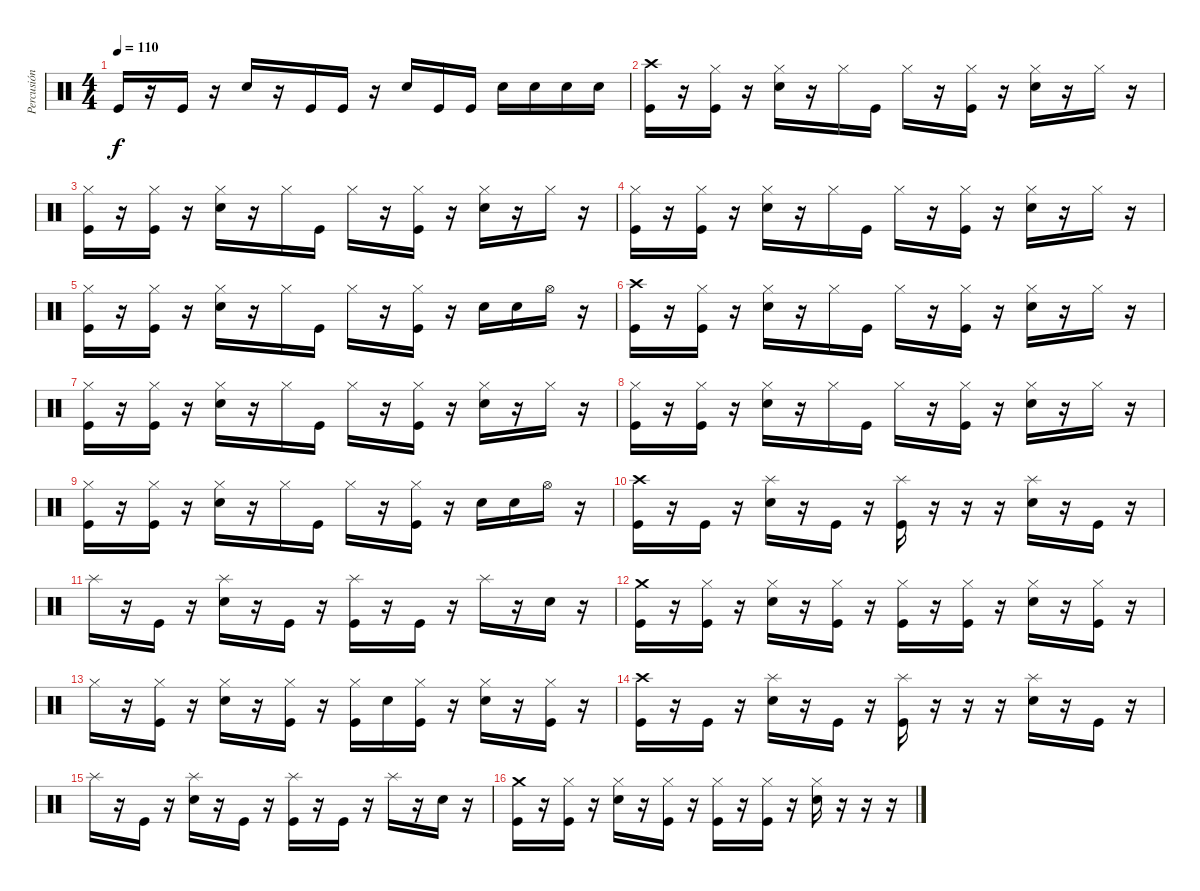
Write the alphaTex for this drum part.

\track ("Percusión" "Percusión") {instrument percussion}
\staff {score}
\articulation defaults
\ts (4 4)
\tempo 110
\clef neutral
\ks c "Kick (hit)".16{dy f}
r.16 "Kick (hit)".16 r.16 "Electric Snare (hit)".16 r.16 "Kick (hit)".16 "Kick (hit)".16 r.16 "Electric Snare (hit)".16 "Kick (hit)".16 "Kick (hit)".16 "Electric Snare (hit)".16 "Electric Snare (hit)".16 "Electric Snare (hit)".16 "Electric Snare (hit)".16 |
("Crash high (hit)" "Kick (hit)").16 r.16 ("Hi-Hat (closed)" "Kick (hit)").16 r.16 ("Hi-Hat (closed)" "Electric Snare (hit)").16 r.16 "Hi-Hat (closed)".16 "Kick (hit)".16 "Hi-Hat (closed)".16 r.16 ("Hi-Hat (closed)" "Kick (hit)").16 r.16 ("Hi-Hat (closed)" "Electric Snare (hit)").16 r.16 "Hi-Hat (closed)".16 r.16 |
("Hi-Hat (closed)" "Kick (hit)").16 r.16 ("Hi-Hat (closed)" "Kick (hit)").16 r.16 ("Hi-Hat (closed)" "Electric Snare (hit)").16 r.16 "Hi-Hat (closed)".16 "Kick (hit)".16 "Hi-Hat (closed)".16 r.16 ("Hi-Hat (closed)" "Kick (hit)").16 r.16 ("Hi-Hat (closed)" "Electric Snare (hit)").16 r.16 "Hi-Hat (closed)".16 r.16 |
("Hi-Hat (closed)" "Kick (hit)").16 r.16 ("Hi-Hat (closed)" "Kick (hit)").16 r.16 ("Hi-Hat (closed)" "Electric Snare (hit)").16 r.16 "Hi-Hat (closed)".16 "Kick (hit)".16 "Hi-Hat (closed)".16 r.16 ("Hi-Hat (closed)" "Kick (hit)").16 r.16 ("Hi-Hat (closed)" "Electric Snare (hit)").16 r.16 "Hi-Hat (closed)".16 r.16 |
("Hi-Hat (closed)" "Kick (hit)").16 r.16 ("Hi-Hat (closed)" "Kick (hit)").16 r.16 ("Hi-Hat (closed)" "Electric Snare (hit)").16 r.16 "Hi-Hat (closed)".16 "Kick (hit)".16 "Hi-Hat (closed)".16 r.16 ("Hi-Hat (closed)" "Kick (hit)").16 r.16 "Electric Snare (hit)".16 "Electric Snare (hit)".16 "Hi-Hat (open)".16 r.16 |
("Crash high (hit)" "Kick (hit)").16 r.16 ("Hi-Hat (closed)" "Kick (hit)").16 r.16 ("Hi-Hat (closed)" "Electric Snare (hit)").16 r.16 "Hi-Hat (closed)".16 "Kick (hit)".16 "Hi-Hat (closed)".16 r.16 ("Hi-Hat (closed)" "Kick (hit)").16 r.16 ("Hi-Hat (closed)" "Electric Snare (hit)").16 r.16 "Hi-Hat (closed)".16 r.16 |
("Hi-Hat (closed)" "Kick (hit)").16 r.16 ("Hi-Hat (closed)" "Kick (hit)").16 r.16 ("Hi-Hat (closed)" "Electric Snare (hit)").16 r.16 "Hi-Hat (closed)".16 "Kick (hit)".16 "Hi-Hat (closed)".16 r.16 ("Hi-Hat (closed)" "Kick (hit)").16 r.16 ("Hi-Hat (closed)" "Electric Snare (hit)").16 r.16 "Hi-Hat (closed)".16 r.16 |
("Hi-Hat (closed)" "Kick (hit)").16 r.16 ("Hi-Hat (closed)" "Kick (hit)").16 r.16 ("Hi-Hat (closed)" "Electric Snare (hit)").16 r.16 "Hi-Hat (closed)".16 "Kick (hit)".16 "Hi-Hat (closed)".16 r.16 ("Hi-Hat (closed)" "Kick (hit)").16 r.16 ("Hi-Hat (closed)" "Electric Snare (hit)").16 r.16 "Hi-Hat (closed)".16 r.16 |
("Hi-Hat (closed)" "Kick (hit)").16 r.16 ("Hi-Hat (closed)" "Kick (hit)").16 r.16 ("Hi-Hat (closed)" "Electric Snare (hit)").16 r.16 "Hi-Hat (closed)".16 "Kick (hit)".16 "Hi-Hat (closed)".16 r.16 ("Hi-Hat (closed)" "Kick (hit)").16 r.16 "Electric Snare (hit)".16 "Electric Snare (hit)".16 "Hi-Hat (open)".16 r.16 |
("Crash high (hit)" "Kick (hit)").16 r.16 "Kick (hit)".16 r.16 ("Splash (hit)" "Electric Snare (hit)").16 r.16 "Kick (hit)".16 r.16 ("Splash (hit)" "Kick (hit)").16 r.16 r.16 r.16 ("Splash (hit)" "Electric Snare (hit)").16 r.16 "Kick (hit)".16 r.16 |
"Splash (hit)".16 r.16 "Kick (hit)".16 r.16 ("Splash (hit)" "Electric Snare (hit)").16 r.16 "Kick (hit)".16 r.16 ("Splash (hit)" "Kick (hit)").16 r.16 "Kick (hit)".16 r.16 "Splash (hit)".16 r.16 "Electric Snare (hit)".16 r.16 |
("Crash medium (hit)" "Kick (hit)").16 r.16 ("Hi-Hat (closed)" "Kick (hit)").16 r.16 ("Hi-Hat (closed)" "Electric Snare (hit)").16 r.16 ("Hi-Hat (closed)" "Kick (hit)").16 r.16 ("Hi-Hat (closed)" "Kick (hit)").16 r.16 ("Hi-Hat (closed)" "Kick (hit)").16 r.16 ("Hi-Hat (closed)" "Electric Snare (hit)").16 r.16 ("Hi-Hat (closed)" "Kick (hit)").16 r.16 |
"Hi-Hat (closed)".16 r.16 ("Hi-Hat (closed)" "Kick (hit)").16 r.16 ("Hi-Hat (closed)" "Electric Snare (hit)").16 r.16 ("Hi-Hat (closed)" "Kick (hit)").16 r.16 ("Hi-Hat (closed)" "Kick (hit)").16 "Electric Snare (hit)".16 ("Hi-Hat (closed)" "Kick (hit)").16 r.16 ("Hi-Hat (closed)" "Electric Snare (hit)").16 r.16 ("Hi-Hat (closed)" "Kick (hit)").16 r.16 |
("Crash high (hit)" "Kick (hit)").16 r.16 "Kick (hit)".16 r.16 ("Splash (hit)" "Electric Snare (hit)").16 r.16 "Kick (hit)".16 r.16 ("Splash (hit)" "Kick (hit)").16 r.16 r.16 r.16 ("Splash (hit)" "Electric Snare (hit)").16 r.16 "Kick (hit)".16 r.16 |
"Splash (hit)".16 r.16 "Kick (hit)".16 r.16 ("Splash (hit)" "Electric Snare (hit)").16 r.16 "Kick (hit)".16 r.16 ("Splash (hit)" "Kick (hit)").16 r.16 "Kick (hit)".16 r.16 "Splash (hit)".16 r.16 "Electric Snare (hit)".16 r.16 |
("Crash medium (hit)" "Kick (hit)").16 r.16 ("Hi-Hat (closed)" "Kick (hit)").16 r.16 ("Hi-Hat (closed)" "Electric Snare (hit)").16 r.16 ("Hi-Hat (closed)" "Kick (hit)").16 r.16 ("Hi-Hat (closed)" "Kick (hit)").16 r.16 ("Hi-Hat (closed)" "Kick (hit)").16 r.16 ("Hi-Hat (closed)" "Electric Snare (hit)").16 r.16 r.16 r.16
